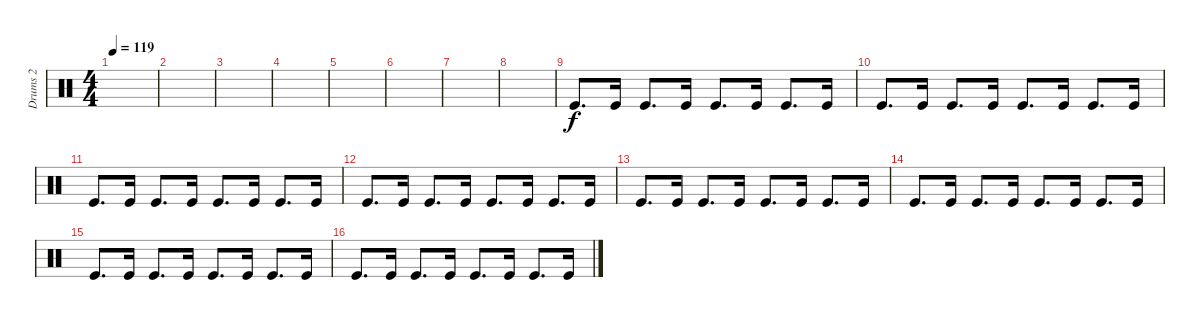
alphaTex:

\track ("Drums 2" "Drums 2") {instrument percussion}
\staff {score}
\articulation defaults
\ts (4 4)
\tempo 119
\clef neutral
\ks c
|
|
|
|
|
|
|
|
"Kick (hit)".8{d} "Kick (hit)".16 "Kick (hit)".8{d} "Kick (hit)".16 "Kick (hit)".8{d} "Kick (hit)".16 "Kick (hit)".8{d} "Kick (hit)".16 |
"Kick (hit)".8{d} "Kick (hit)".16 "Kick (hit)".8{d} "Kick (hit)".16 "Kick (hit)".8{d} "Kick (hit)".16 "Kick (hit)".8{d} "Kick (hit)".16 |
"Kick (hit)".8{d} "Kick (hit)".16 "Kick (hit)".8{d} "Kick (hit)".16 "Kick (hit)".8{d} "Kick (hit)".16 "Kick (hit)".8{d} "Kick (hit)".16 |
"Kick (hit)".8{d} "Kick (hit)".16 "Kick (hit)".8{d} "Kick (hit)".16 "Kick (hit)".8{d} "Kick (hit)".16 "Kick (hit)".8{d} "Kick (hit)".16 |
"Kick (hit)".8{d} "Kick (hit)".16 "Kick (hit)".8{d} "Kick (hit)".16 "Kick (hit)".8{d} "Kick (hit)".16 "Kick (hit)".8{d} "Kick (hit)".16 |
"Kick (hit)".8{d} "Kick (hit)".16 "Kick (hit)".8{d} "Kick (hit)".16 "Kick (hit)".8{d} "Kick (hit)".16 "Kick (hit)".8{d} "Kick (hit)".16 |
"Kick (hit)".8{d} "Kick (hit)".16 "Kick (hit)".8{d} "Kick (hit)".16 "Kick (hit)".8{d} "Kick (hit)".16 "Kick (hit)".8{d} "Kick (hit)".16 |
"Kick (hit)".8{d} "Kick (hit)".16 "Kick (hit)".8{d} "Kick (hit)".16 "Kick (hit)".8{d} "Kick (hit)".16 "Kick (hit)".8{d} "Kick (hit)".16
